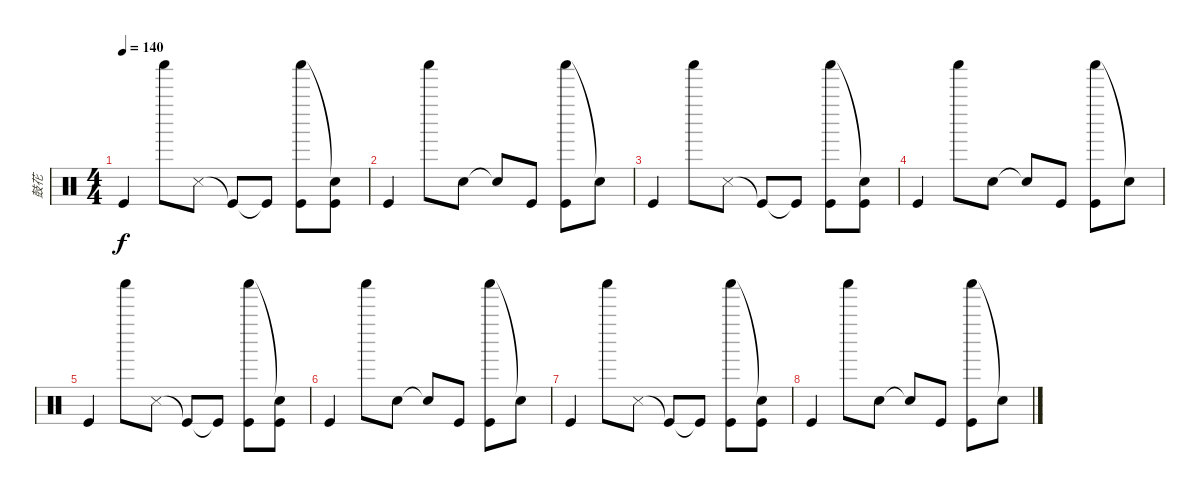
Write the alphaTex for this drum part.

\track ("鼓花" "鼓花") {instrument percussion}
\staff {score}
\articulation defaults
\ts (4 4)
\tempo 140
\clef neutral
\ks c "Kick (hit)".4{dy f} "Shaker (hit)".8 "Snare (side stick) 3".8 "Kick (hit)"{t}.8 "Kick (hit)"{t}.8
("Shaker (hit)" "Kick (hit)").8 ("Snare (hit)"{t} "Kick (hit)").8 |
"Kick (hit)".4 "Shaker (hit)".8 "Hand Clap (hit)".8 "Snare (hit)"{t}.8 "Kick (hit)".8 ("Shaker (hit)" "Kick (hit)").8 "Snare (hit)"{t}.8 |
"Kick (hit)".4 "Shaker (hit)".8 "Snare (side stick) 3".8 "Kick (hit)"{t}.8 "Kick (hit)"{t}.8 ("Shaker (hit)" "Kick (hit)").8 ("Snare (hit)"{t} "Kick (hit)").8 |
"Kick (hit)".4 "Shaker (hit)".8 "Hand Clap (hit)".8 "Snare (hit)"{t}.8 "Kick (hit)".8 ("Shaker (hit)" "Kick (hit)").8 "Snare (hit)"{t}.8 |
"Kick (hit)".4 "Shaker (hit)".8 "Snare (side stick) 3".8 "Kick (hit)"{t}.8 "Kick (hit)"{t}.8 ("Shaker (hit)" "Kick (hit)").8 ("Snare (hit)"{t} "Kick (hit)").8 |
"Kick (hit)".4 "Shaker (hit)".8 "Hand Clap (hit)".8 "Snare (hit)"{t}.8 "Kick (hit)".8 ("Shaker (hit)" "Kick (hit)").8 "Snare (hit)"{t}.8 |
"Kick (hit)".4 "Shaker (hit)".8 "Snare (side stick) 3".8 "Kick (hit)"{t}.8 "Kick (hit)"{t}.8 ("Shaker (hit)" "Kick (hit)").8 ("Snare (hit)"{t} "Kick (hit)").8 |
"Kick (hit)".4 "Shaker (hit)".8 "Hand Clap (hit)".8 "Snare (hit)"{t}.8 "Kick (hit)".8 ("Shaker (hit)" "Kick (hit)").8 "Snare (hit)"{t}.8
